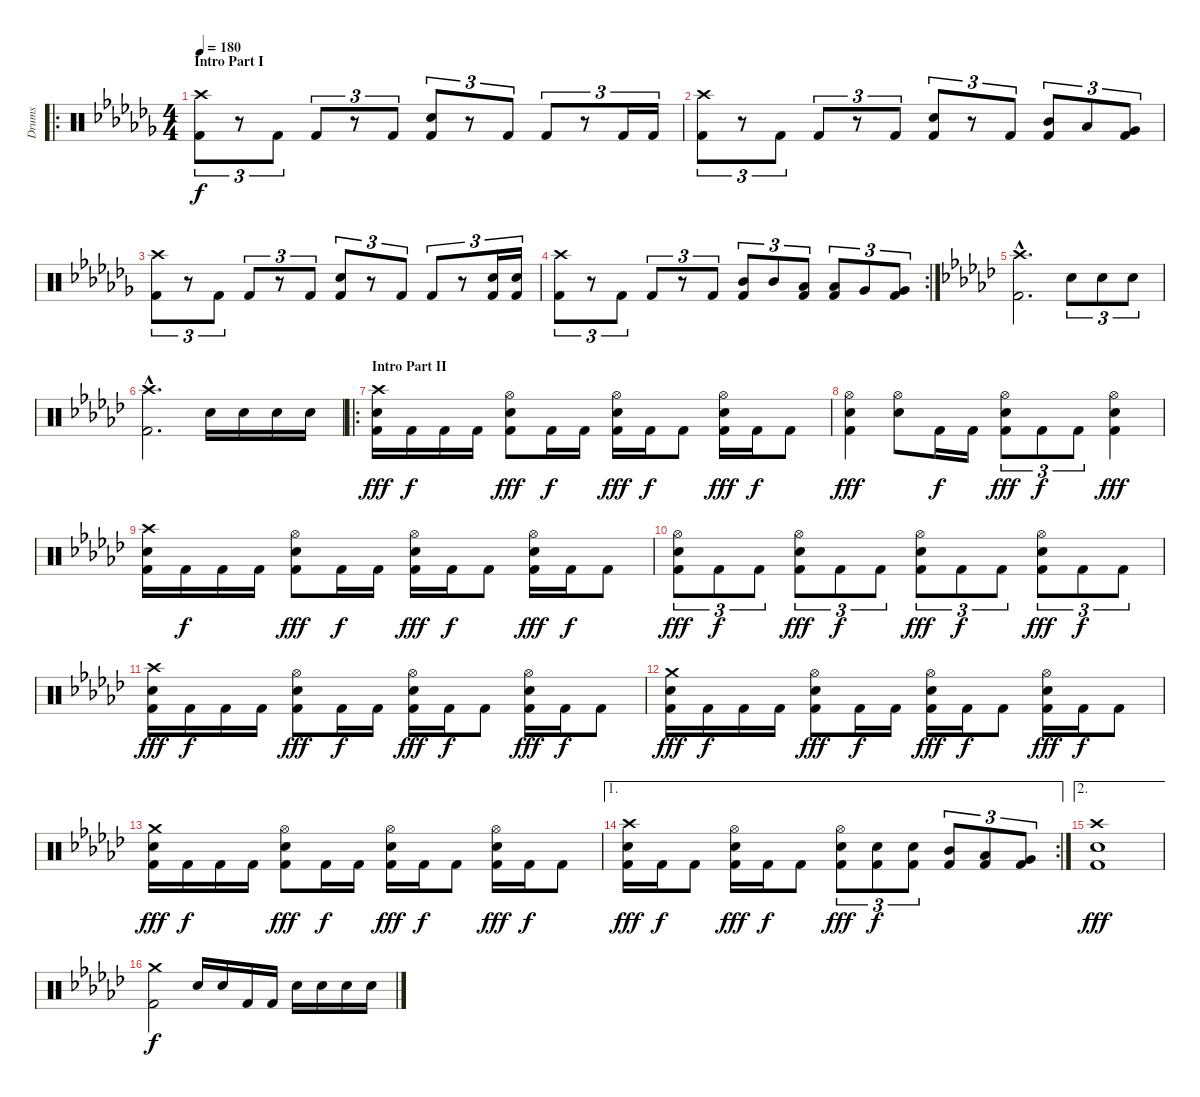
\track ("Drums" "Drums") {instrument percussion}
\staff {score}
\articulation defaults
\ro
\ts (4 4)
\section ("" "Intro Part I")
\tempo 180
\clef neutral
\ks abminor
("Crash high (hit)" "Kick (hit) 2").8{tu (3 2) dy f} r.8{tu (3 2)} "Kick (hit) 2".8{tu (3 2)} "Kick (hit) 2".8{tu (3 2)} r.8{tu (3 2)} "Kick (hit) 2".8{tu (3 2)} ("Snare (hit) 2" "Kick (hit) 2").8{tu (3 2)} r.8{tu (3 2)} "Kick (hit) 2".8{tu (3 2)} "Kick (hit) 2".8{tu (3 2)} r.8{tu (3 2)} "Kick (hit) 2".16{tu (3 2)} "Kick (hit) 2".16{tu (3 2)} |
("Crash high (hit)" "Kick (hit) 2").8{tu (3 2)} r.8{tu (3 2)} "Kick (hit) 2".8{tu (3 2)} "Kick (hit) 2".8{tu (3 2)} r.8{tu (3 2)} "Kick (hit) 2".8{tu (3 2)} ("Snare (hit) 2" "Kick (hit) 2").8{tu (3 2)} r.8{tu (3 2)} "Kick (hit) 2".8{tu (3 2)} ("Mid Tom (hit)" "Kick (hit) 2").8{tu (3 2)} "Low Tom (hit)".8{tu (3 2)} ("Very Low Tom (hit)" "Kick (hit) 2").8{tu (3 2)} |
("Crash high (hit)" "Kick (hit) 2").8{tu (3 2)} r.8{tu (3 2)} "Kick (hit) 2".8{tu (3 2)} "Kick (hit) 2".8{tu (3 2)} r.8{tu (3 2)} "Kick (hit) 2".8{tu (3 2)} ("Snare (hit) 2" "Kick (hit) 2").8{tu (3 2)} r.8{tu (3 2)} "Kick (hit) 2".8{tu (3 2)} "Kick (hit) 2".8{tu (3 2)} r.8{tu (3 2)} ("Snare (hit) 2" "Kick (hit) 2").16{tu (3 2)} ("Snare (hit) 2" "Kick (hit) 2").16{tu (3 2)} |
\rc 2
("Crash high (hit)" "Kick (hit) 2").8{tu (3 2)} r.8{tu (3 2)} "Kick (hit) 2".8{tu (3 2)} "Kick (hit) 2".8{tu (3 2)} r.8{tu (3 2)} "Kick (hit) 2".8{tu (3 2)} ("Mid Tom (hit)" "Kick (hit) 2").8{tu (3 2)} "Mid Tom (hit)".8{tu (3 2)} ("Low Tom (hit)" "Kick (hit) 2").8{tu (3 2)} ("Low Tom (hit)" "Kick (hit) 2").8{tu (3 2)} "Very Low Tom (hit)".8{tu (3 2)} ("Very Low Tom (hit)" "Kick (hit) 2").8{tu (3 2)} |
\ks ebminor
("Crash high (hit)"{hac} "Kick (hit) 2"{hac}).2{d} "Snare (hit) 2".8{tu (3 2)} "Snare (hit) 2".8{tu (3 2)} "Snare (hit) 2".8{tu (3 2)} |
("Crash high (hit)"{hac} "Kick (hit) 2"{hac}).2{d} "Snare (hit) 2".16 "Snare (hit) 2".16 "Snare (hit) 2".16 "Snare (hit) 2".16 |
\ro
\section ("" "Intro Part II")
("Crash high (hit)" "Snare (hit) 2" "Kick (hit) 2").16{dy fff} "Kick (hit) 2".16{dy f} "Kick (hit) 2".16 "Kick (hit) 2".16 ("Hi-Hat (open)" "Snare (hit) 2" "Kick (hit) 2").8{dy fff} "Kick (hit) 2".16{dy f} "Kick (hit) 2".16 ("Hi-Hat (open)" "Snare (hit) 2" "Kick (hit) 2").16{dy fff} "Kick (hit) 2".16{dy f} "Kick (hit) 2".8 ("Hi-Hat (open)" "Snare (hit) 2" "Kick (hit) 2").16{dy fff} "Kick (hit) 2".16{dy f} "Kick (hit) 2".8 |
("Hi-Hat (open)" "Snare (hit) 2" "Kick (hit) 2").4{dy fff} ("Hi-Hat (open)" "Snare (hit) 2").8 "Kick (hit) 2".16{dy f} "Kick (hit) 2".16 ("Hi-Hat (open)" "Snare (hit) 2" "Kick (hit) 2").8{tu (3 2) dy fff} "Kick (hit) 2".8{tu (3 2) dy f} "Kick (hit) 2".8{tu (3 2)} ("Hi-Hat (open)" "Snare (hit) 2" "Kick (hit) 2").4{dy fff} |
("Crash high (hit)" "Snare (hit) 2" "Kick (hit) 2").16 "Kick (hit) 2".16{dy f} "Kick (hit) 2".16 "Kick (hit) 2".16 ("Hi-Hat (open)" "Snare (hit) 2" "Kick (hit) 2").8{dy fff} "Kick (hit) 2".16{dy f} "Kick (hit) 2".16 ("Hi-Hat (open)" "Snare (hit) 2" "Kick (hit) 2").16{dy fff} "Kick (hit) 2".16{dy f} "Kick (hit) 2".8 ("Hi-Hat (open)" "Snare (hit) 2" "Kick (hit) 2").16{dy fff} "Kick (hit) 2".16{dy f} "Kick (hit) 2".8 |
("Hi-Hat (open)" "Snare (hit) 2" "Kick (hit) 2").8{tu (3 2) dy fff} "Kick (hit) 2".8{tu (3 2) dy f} "Kick (hit) 2".8{tu (3 2)} ("Hi-Hat (open)" "Snare (hit) 2" "Kick (hit) 2").8{tu (3 2) dy fff} "Kick (hit) 2".8{tu (3 2) dy f} "Kick (hit) 2".8{tu (3 2)} ("Hi-Hat (open)" "Snare (hit) 2" "Kick (hit) 2").8{tu (3 2) dy fff} "Kick (hit) 2".8{tu (3 2) dy f} "Kick (hit) 2".8{tu (3 2)} ("Hi-Hat (open)" "Snare (hit) 2" "Kick (hit) 2").8{tu (3 2) dy fff} "Kick (hit) 2".8{tu (3 2) dy f} "Kick (hit) 2".8{tu (3 2)} |
("Crash high (hit)" "Snare (hit) 2" "Kick (hit) 2").16{dy fff} "Kick (hit) 2".16{dy f} "Kick (hit) 2".16 "Kick (hit) 2".16 ("Hi-Hat (open)" "Snare (hit) 2" "Kick (hit) 2").8{dy fff} "Kick (hit) 2".16{dy f} "Kick (hit) 2".16 ("Hi-Hat (open)" "Snare (hit) 2" "Kick (hit) 2").16{dy fff} "Kick (hit) 2".16{dy f} "Kick (hit) 2".8 ("Hi-Hat (open)" "Snare (hit) 2" "Kick (hit) 2").16{dy fff} "Kick (hit) 2".16{dy f} "Kick (hit) 2".8 |
("Crash medium (hit)" "Snare (hit) 2" "Kick (hit) 2").16{dy fff} "Kick (hit) 2".16{dy f} "Kick (hit) 2".16 "Kick (hit) 2".16 ("Hi-Hat (open)" "Snare (hit) 2" "Kick (hit) 2").8{dy fff} "Kick (hit) 2".16{dy f} "Kick (hit) 2".16 ("Hi-Hat (open)" "Snare (hit) 2" "Kick (hit) 2").16{dy fff} "Kick (hit) 2".16{dy f} "Kick (hit) 2".8 ("Hi-Hat (open)" "Snare (hit) 2" "Kick (hit) 2").16{dy fff} "Kick (hit) 2".16{dy f} "Kick (hit) 2".8 |
("Crash medium (hit)" "Snare (hit) 2" "Kick (hit) 2").16{dy fff} "Kick (hit) 2".16{dy f} "Kick (hit) 2".16 "Kick (hit) 2".16 ("Hi-Hat (open)" "Snare (hit) 2" "Kick (hit) 2").8{dy fff} "Kick (hit) 2".16{dy f} "Kick (hit) 2".16 ("Hi-Hat (open)" "Snare (hit) 2" "Kick (hit) 2").16{dy fff} "Kick (hit) 2".16{dy f} "Kick (hit) 2".8 ("Hi-Hat (open)" "Snare (hit) 2" "Kick (hit) 2").16{dy fff} "Kick (hit) 2".16{dy f} "Kick (hit) 2".8 |
\ae 1
\rc 2
("Crash high (hit)" "Snare (hit) 2" "Kick (hit) 2").16{dy fff} "Kick (hit) 2".16{dy f} "Kick (hit) 2".8 ("Hi-Hat (open)" "Snare (hit) 2" "Kick (hit) 2").16{dy fff} "Kick (hit) 2".16{dy f} "Kick (hit) 2".8 ("Hi-Hat (open)" "Snare (hit) 2" "Kick (hit) 2").8{tu (3 2) dy fff} ("Snare (hit) 2" "Kick (hit) 2").8{tu (3 2) dy f} ("Snare (hit) 2" "Kick (hit) 2").8{tu (3 2)} ("Mid Tom (hit)" "Kick (hit) 2").8{tu (3 2)} ("Low Tom (hit)" "Kick (hit) 2").8{tu (3 2)} ("Very Low Tom (hit)" "Kick (hit) 2").8{tu (3 2)} |
\ae 2
("Crash high (hit)" "Snare (hit) 2" "Kick (hit) 2").1{dy fff} |
("Crash medium (hit)" "Kick (hit) 2").2{dy f} "Snare (hit) 2".16 "Snare (hit) 2".16 "Kick (hit) 2".16 "Kick (hit) 2".16 "Snare (hit) 2".16 "Snare (hit) 2".16 "Snare (hit) 2".16 "Snare (hit) 2".16
